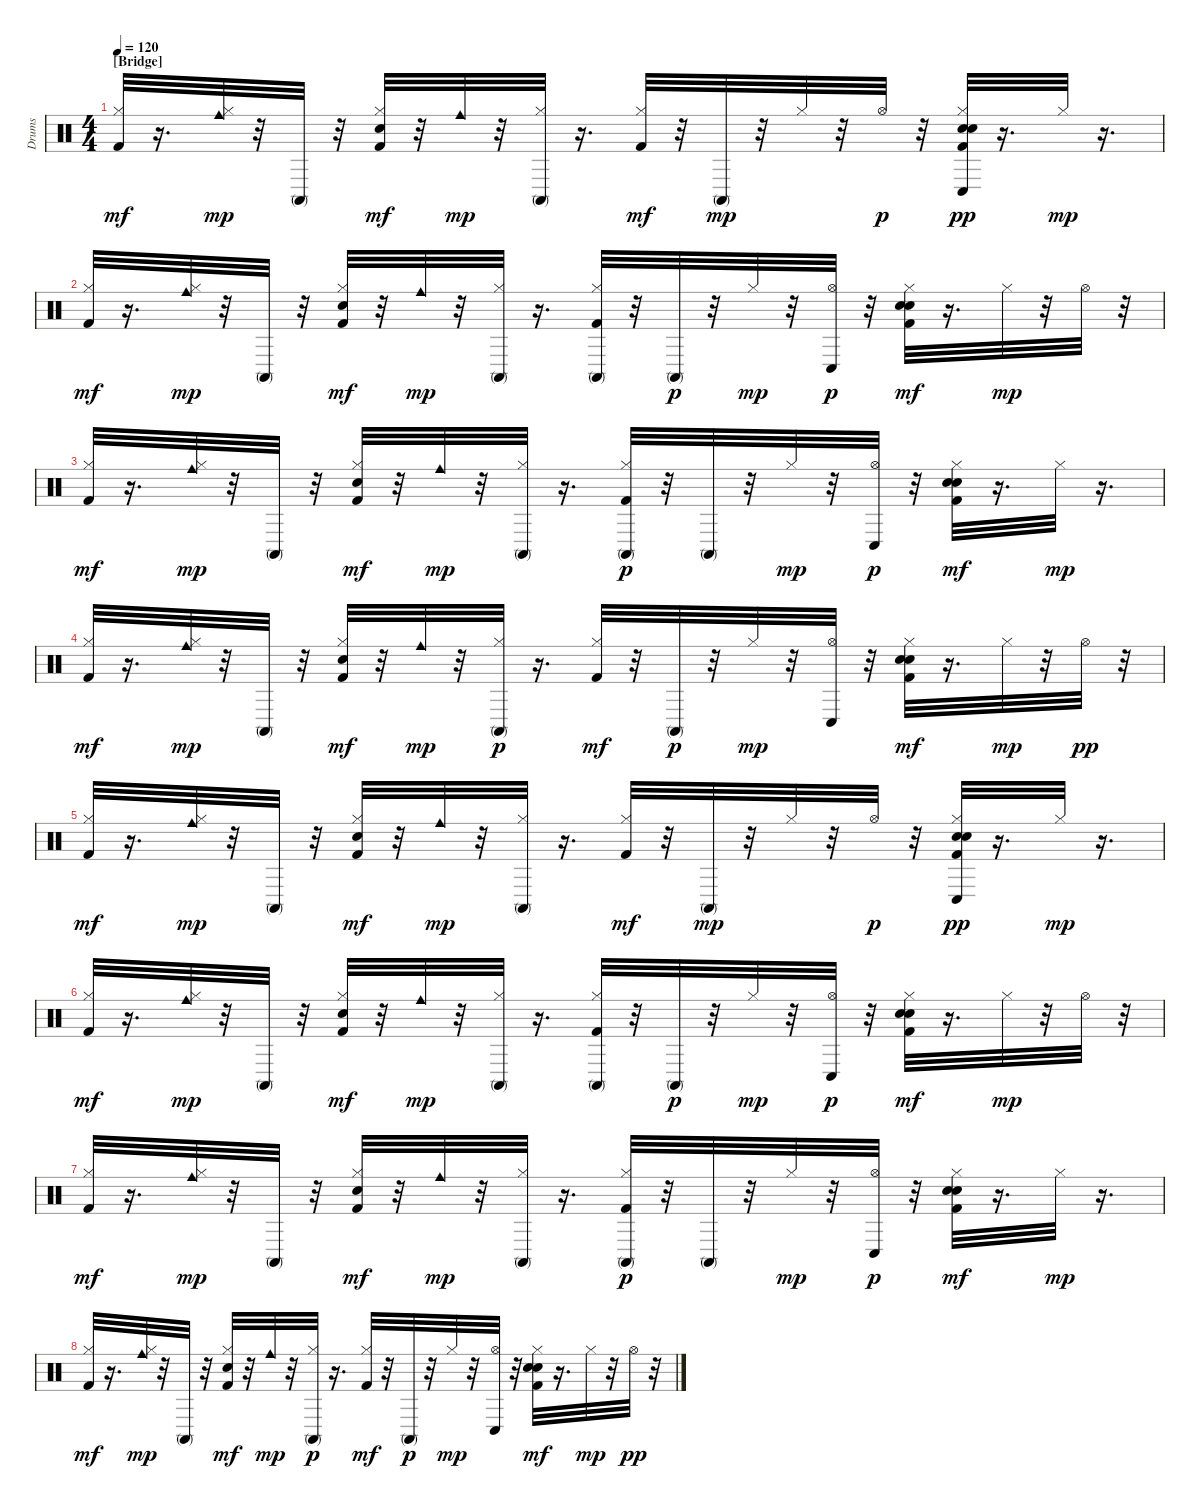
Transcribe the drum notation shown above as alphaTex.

\track ("Drums" "Drums") {instrument percussion}
\staff {score}
\articulation defaults
\ts (4 4)
\section ("" "[Bridge]")
\tempo 120
\clef neutral
\ks c
("Hi-Hat (closed)" "Kick (hit) 2").32{dy mf} r.16{d} ("Hi-Hat (closed)" "Cowbell medium (hit)").32{dy mp} r.32 "Conga high (mute)".32 r.32 ("Hi-Hat (closed)" "Electric Snare (hit)" "Kick (hit) 2").32{dy mf} r.32 "Cowbell medium (hit)".32{dy mp} r.32 ("Hi-Hat (closed)" "Conga high (mute)").32 r.16{d} ("Hi-Hat (closed)" "Kick (hit) 2").32{dy mf} r.32 "Conga high (mute)".32{dy mp} r.32 "Hi-Hat (closed)".32 r.32 "Hi-Hat (open)".32{dy p} r.32 ("Hi-Hat (closed)" "Kick (hit) 2" "Hand Clap (hit)" "Electric Snare (hit)" "Conga low (hit)").32{dy pp} r.16{d} "Hi-Hat (closed)".32{dy mp} r.16{d} |
("Hi-Hat (closed)" "Kick (hit) 2").32{dy mf} r.16{d} ("Hi-Hat (closed)" "Cowbell medium (hit)").32{dy mp} r.32 "Conga high (mute)".32 r.32 ("Hi-Hat (closed)" "Electric Snare (hit)" "Kick (hit) 2").32{dy mf} r.32 "Cowbell medium (hit)".32{dy mp} r.32 ("Hi-Hat (closed)" "Conga high (mute)").32 r.16{d} ("Hi-Hat (closed)" "Kick (hit) 2" "Conga high (mute)").32 r.32 "Conga high (mute)".32{dy p} r.32 "Hi-Hat (closed)".32{dy mp} r.32 ("Hi-Hat (open)" "Conga low (hit)").32{dy p} r.32 ("Kick (hit) 2" "Hi-Hat (closed)" "Electric Snare (hit)" "Hand Clap (hit)").32{dy mf} r.16{d} "Hi-Hat (closed)".32{dy mp} r.32 "Hi-Hat (open)".32 r.32 |
("Hi-Hat (closed)" "Kick (hit) 2").32{dy mf} r.16{d} ("Hi-Hat (closed)" "Cowbell medium (hit)").32{dy mp} r.32 "Conga high (mute)".32 r.32 ("Hi-Hat (closed)" "Electric Snare (hit)" "Kick (hit) 2").32{dy mf} r.32 "Cowbell medium (hit)".32{dy mp} r.32 ("Hi-Hat (closed)" "Conga high (mute)").32 r.16{d} ("Kick (hit) 2" "Hi-Hat (closed)" "Conga high (mute)").32{dy p} r.32 "Conga high (mute)".32 r.32 "Hi-Hat (closed)".32{dy mp} r.32 ("Hi-Hat (open)" "Conga low (hit)").32{dy p} r.32 ("Hi-Hat (closed)" "Hand Clap (hit)" "Electric Snare (hit)" "Kick (hit) 2").32{dy mf} r.16{d} "Hi-Hat (closed)".32{dy mp} r.16{d} |
("Hi-Hat (closed)" "Kick (hit) 2").32{dy mf} r.16{d} ("Hi-Hat (closed)" "Cowbell medium (hit)").32{dy mp} r.32 "Conga high (mute)".32 r.32 ("Hi-Hat (closed)" "Electric Snare (hit)" "Kick (hit) 2").32{dy mf} r.32 "Cowbell medium (hit)".32{dy mp} r.32 ("Hi-Hat (closed)" "Conga high (mute)").32{dy p} r.16{d} ("Hi-Hat (closed)" "Kick (hit) 2").32{dy mf} r.32 "Conga high (mute)".32{dy p} r.32 "Hi-Hat (closed)".32{dy mp} r.32 ("Hi-Hat (open)" "Conga low (hit)").32 r.32 ("Kick (hit) 2" "Hi-Hat (closed)" "Electric Snare (hit)" "Hand Clap (hit)").32{dy mf} r.16{d} "Hi-Hat (closed)".32{dy mp} r.32 "Hi-Hat (open)".32{dy pp} r.32 |
("Hi-Hat (closed)" "Kick (hit) 2").32{dy mf} r.16{d} ("Hi-Hat (closed)" "Cowbell medium (hit)").32{dy mp} r.32 "Conga high (mute)".32 r.32 ("Hi-Hat (closed)" "Electric Snare (hit)" "Kick (hit) 2").32{dy mf} r.32 "Cowbell medium (hit)".32{dy mp} r.32 ("Hi-Hat (closed)" "Conga high (mute)").32 r.16{d} ("Hi-Hat (closed)" "Kick (hit) 2").32{dy mf} r.32 "Conga high (mute)".32{dy mp} r.32 "Hi-Hat (closed)".32 r.32 "Hi-Hat (open)".32{dy p} r.32 ("Hi-Hat (closed)" "Kick (hit) 2" "Hand Clap (hit)" "Electric Snare (hit)" "Conga low (hit)").32{dy pp} r.16{d} "Hi-Hat (closed)".32{dy mp} r.16{d} |
("Hi-Hat (closed)" "Kick (hit) 2").32{dy mf} r.16{d} ("Hi-Hat (closed)" "Cowbell medium (hit)").32{dy mp} r.32 "Conga high (mute)".32 r.32 ("Hi-Hat (closed)" "Electric Snare (hit)" "Kick (hit) 2").32{dy mf} r.32 "Cowbell medium (hit)".32{dy mp} r.32 ("Hi-Hat (closed)" "Conga high (mute)").32 r.16{d} ("Hi-Hat (closed)" "Kick (hit) 2" "Conga high (mute)").32 r.32 "Conga high (mute)".32{dy p} r.32 "Hi-Hat (closed)".32{dy mp} r.32 ("Hi-Hat (open)" "Conga low (hit)").32{dy p} r.32 ("Kick (hit) 2" "Hi-Hat (closed)" "Electric Snare (hit)" "Hand Clap (hit)").32{dy mf} r.16{d} "Hi-Hat (closed)".32{dy mp} r.32 "Hi-Hat (open)".32 r.32 |
("Hi-Hat (closed)" "Kick (hit) 2").32{dy mf} r.16{d} ("Hi-Hat (closed)" "Cowbell medium (hit)").32{dy mp} r.32 "Conga high (mute)".32 r.32 ("Hi-Hat (closed)" "Electric Snare (hit)" "Kick (hit) 2").32{dy mf} r.32 "Cowbell medium (hit)".32{dy mp} r.32 ("Hi-Hat (closed)" "Conga high (mute)").32 r.16{d} ("Kick (hit) 2" "Hi-Hat (closed)" "Conga high (mute)").32{dy p} r.32 "Conga high (mute)".32 r.32 "Hi-Hat (closed)".32{dy mp} r.32 ("Hi-Hat (open)" "Conga low (hit)").32{dy p} r.32 ("Hi-Hat (closed)" "Hand Clap (hit)" "Electric Snare (hit)" "Kick (hit) 2").32{dy mf} r.16{d} "Hi-Hat (closed)".32{dy mp} r.16{d} |
("Hi-Hat (closed)" "Kick (hit) 2").32{dy mf} r.16{d} ("Hi-Hat (closed)" "Cowbell medium (hit)").32{dy mp} r.32 "Conga high (mute)".32 r.32 ("Hi-Hat (closed)" "Electric Snare (hit)" "Kick (hit) 2").32{dy mf} r.32 "Cowbell medium (hit)".32{dy mp} r.32 ("Hi-Hat (closed)" "Conga high (mute)").32{dy p} r.16{d} ("Hi-Hat (closed)" "Kick (hit) 2").32{dy mf} r.32 "Conga high (mute)".32{dy p} r.32 "Hi-Hat (closed)".32{dy mp} r.32 ("Hi-Hat (open)" "Conga low (hit)").32 r.32 ("Kick (hit) 2" "Hi-Hat (closed)" "Electric Snare (hit)" "Hand Clap (hit)").32{dy mf} r.16{d} "Hi-Hat (closed)".32{dy mp} r.32 "Hi-Hat (open)".32{dy pp} r.32
